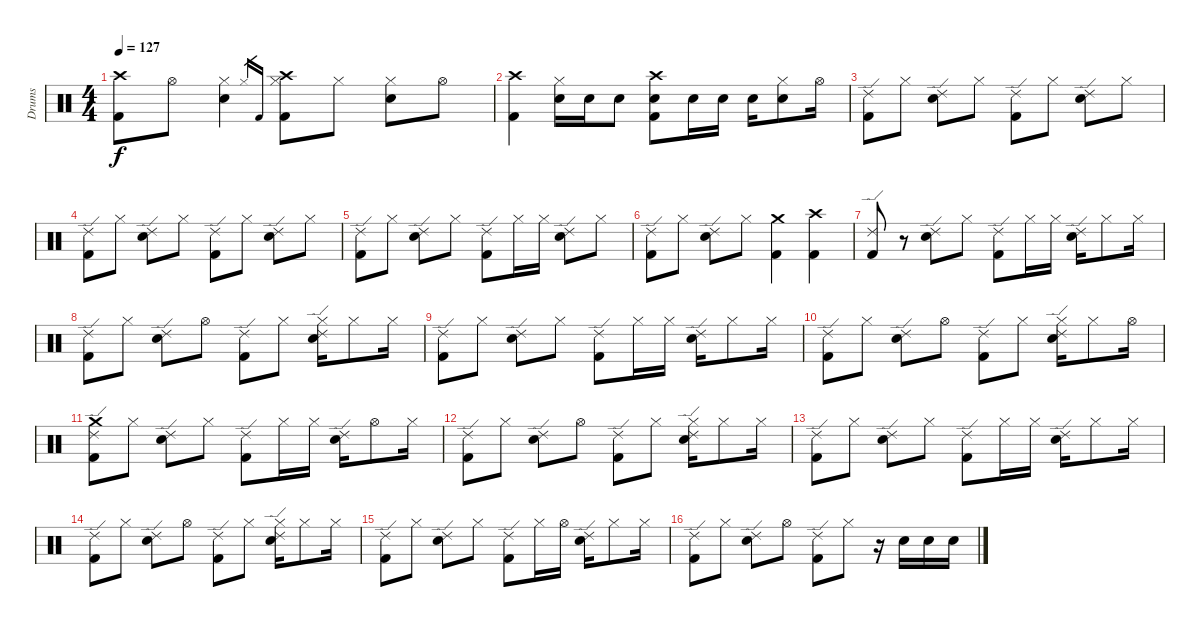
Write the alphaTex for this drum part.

\track ("Drums" "Drums") {instrument percussion}
\staff {score}
\articulation defaults
\ts (4 4)
\tempo 127
\clef neutral
\ks c
("Crash high (hit)" "Kick (hit) 2").8{dy f} "Hi-Hat (open)".8 ("Snare (hit) 2" "Hi-Hat (closed)").4 "Hi-Hat (closed)".16{gr} "Kick (hit) 2".16{gr} ("Crash high (hit)" "Hi-Hat (closed)" "Kick (hit) 2").8 "Hi-Hat (closed)".8 ("Snare (hit) 2" "Hi-Hat (closed)").8 "Hi-Hat (open)".8 |
("Crash high (hit)" "Kick (hit) 2").4 ("Hi-Hat (closed)" "Snare (hit) 2").16 "Snare (hit) 2".16 "Electric Snare (hit)".8 ("Crash high (hit)" "Snare (hit) 2" "Kick (hit) 2").8 "Snare (hit) 2".16 "Snare (hit) 2".16 "Snare (hit) 2".16 ("Hi-Hat (closed)" "Electric Snare (hit)").8 "Hi-Hat (open)".16 |
("Ride (edge) 2" "Kick (hit) 2").8 "Hi-Hat (closed)".8 ("Ride (edge) 2" "Snare (hit) 2").8 "Hi-Hat (closed)".8 ("Ride (edge) 2" "Kick (hit) 2").8 "Hi-Hat (closed)".8 ("Ride (edge) 2" "Snare (hit) 2").8 "Hi-Hat (closed)".8 |
("Ride (edge) 2" "Kick (hit) 2").8 "Hi-Hat (closed)".8 ("Ride (edge) 2" "Snare (hit) 2").8 "Hi-Hat (closed)".8 ("Ride (edge) 2" "Kick (hit) 2").8 "Hi-Hat (closed)".8 ("Ride (edge) 2" "Snare (hit) 2").8 "Hi-Hat (closed)".8 |
("Ride (edge) 2" "Kick (hit) 2").8 "Hi-Hat (closed)".8 ("Ride (edge) 2" "Snare (hit) 2").8 "Hi-Hat (closed)".8 ("Ride (edge) 2" "Kick (hit) 2").8 "Hi-Hat (closed)".16 "Hi-Hat (closed)".16 ("Ride (edge) 2" "Snare (hit) 2").8 "Hi-Hat (closed)".8 |
("Ride (edge) 2" "Kick (hit) 2").8 "Hi-Hat (closed)".8 ("Ride (edge) 2" "Snare (hit) 2").8 "Hi-Hat (closed)".8 ("Crash medium (hit)" "Kick (hit) 2").4 ("Crash high (hit)" "Kick (hit) 2").4 |
("Ride (edge) 2" "Kick (hit) 2").8 r.8 ("Ride (edge) 2" "Snare (hit) 2").8 "Hi-Hat (closed)".8 ("Ride (edge) 2" "Kick (hit) 2").8 "Hi-Hat (closed)".16 "Hi-Hat (closed)".16 ("Ride (edge) 2" "Snare (hit) 2").16 "Hi-Hat (closed)".8 "Hi-Hat (closed)".16 |
("Ride (edge) 2" "Kick (hit) 2").8 "Hi-Hat (closed)".8 ("Ride (edge) 2" "Snare (hit) 2").8 "Hi-Hat (open)".8 ("Ride (edge) 2" "Kick (hit) 2").8 "Hi-Hat (closed)".8 ("Ride (edge) 2" "Hi-Hat (closed)" "Snare (hit) 2").16 "Hi-Hat (closed)".8 "Hi-Hat (closed)".16 |
("Ride (edge) 2" "Kick (hit) 2").8 "Hi-Hat (closed)".8 ("Ride (edge) 2" "Snare (hit) 2").8 "Hi-Hat (closed)".8 ("Ride (edge) 2" "Kick (hit) 2").8 "Hi-Hat (closed)".16 "Hi-Hat (closed)".16 ("Ride (edge) 2" "Snare (hit) 2").16 "Hi-Hat (closed)".8 "Hi-Hat (closed)".16 |
("Ride (edge) 2" "Kick (hit) 2").8 "Hi-Hat (closed)".8 ("Ride (edge) 2" "Snare (hit) 2").8 "Hi-Hat (open)".8 ("Ride (edge) 2" "Kick (hit) 2").8 "Hi-Hat (closed)".8 ("Ride (edge) 2" "Hi-Hat (closed)" "Snare (hit) 2").16 "Hi-Hat (closed)".8 "Hi-Hat (open)".16 |
("Crash medium (hit)" "Ride (edge) 2" "Kick (hit) 2").8 "Hi-Hat (closed)".8 ("Ride (edge) 2" "Snare (hit) 2").8 "Hi-Hat (closed)".8 ("Ride (edge) 2" "Kick (hit) 2").8 "Hi-Hat (closed)".16 "Hi-Hat (closed)".16 ("Ride (edge) 2" "Snare (hit) 2").16 "Hi-Hat (open)".8 "Hi-Hat (closed)".16 |
("Ride (edge) 2" "Kick (hit) 2").8 "Hi-Hat (closed)".8 ("Ride (edge) 2" "Snare (hit) 2").8 "Hi-Hat (open)".8 ("Ride (edge) 2" "Kick (hit) 2").8 "Hi-Hat (closed)".8 ("Ride (edge) 2" "Hi-Hat (closed)" "Snare (hit) 2").16 "Hi-Hat (closed)".8 "Hi-Hat (closed)".16 |
("Ride (edge) 2" "Kick (hit) 2").8 "Hi-Hat (closed)".8 ("Ride (edge) 2" "Snare (hit) 2").8 "Hi-Hat (closed)".8 ("Ride (edge) 2" "Kick (hit) 2").8 "Hi-Hat (closed)".16 "Hi-Hat (closed)".16 ("Ride (edge) 2" "Snare (hit) 2").16 "Hi-Hat (closed)".8 "Hi-Hat (closed)".16 |
("Ride (edge) 2" "Kick (hit) 2").8 "Hi-Hat (closed)".8 ("Ride (edge) 2" "Snare (hit) 2").8 "Hi-Hat (open)".8 ("Ride (edge) 2" "Kick (hit) 2").8 "Hi-Hat (closed)".8 ("Ride (edge) 2" "Hi-Hat (closed)" "Snare (hit) 2").16 "Hi-Hat (closed)".8 "Hi-Hat (closed)".16 |
("Ride (edge) 2" "Kick (hit) 2").8 "Hi-Hat (closed)".8 ("Ride (edge) 2" "Snare (hit) 2").8 "Hi-Hat (closed)".8 ("Ride (edge) 2" "Kick (hit) 2").8 "Hi-Hat (closed)".16 "Hi-Hat (open)".16 ("Ride (edge) 2" "Snare (hit) 2").16 "Hi-Hat (closed)".8 "Hi-Hat (closed)".16 |
("Ride (edge) 2" "Kick (hit) 2").8 "Hi-Hat (closed)".8 ("Ride (edge) 2" "Snare (hit) 2").8 "Hi-Hat (open)".8 ("Ride (edge) 2" "Kick (hit) 2").8 "Hi-Hat (closed)".8 r.16 "Snare (hit) 2".16 "Snare (hit) 2".16 "Snare (hit) 2".16
